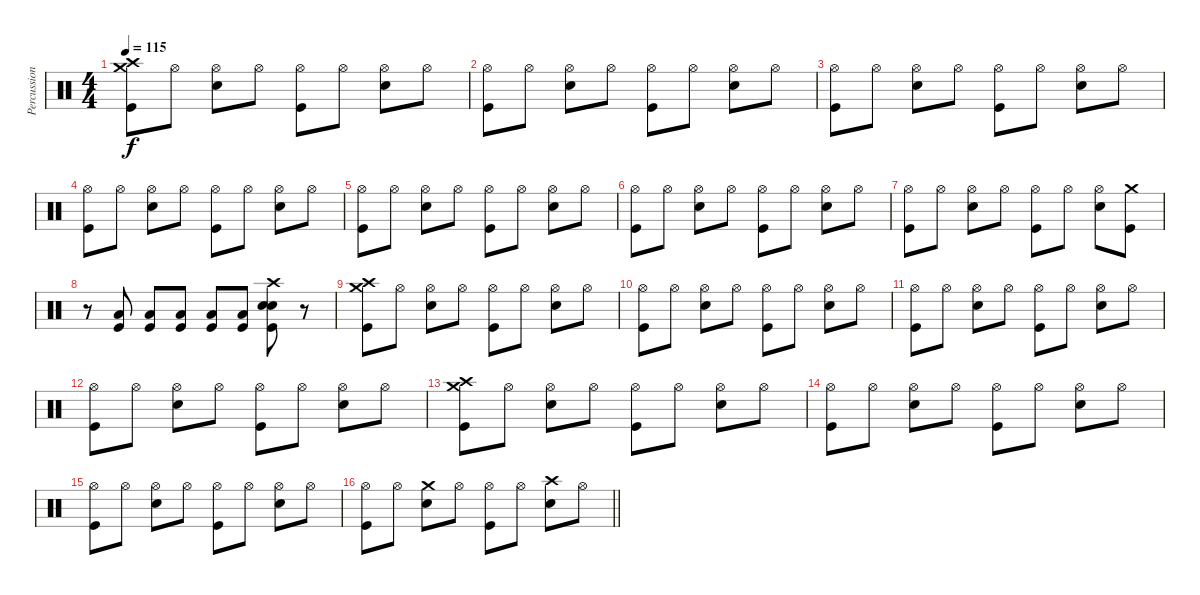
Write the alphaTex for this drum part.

\track ("Percussion" "Percussion") {instrument percussion}
\staff {score}
\articulation defaults
\ts (4 4)
\tempo 115
\clef neutral
\ks c
("Crash high (hit)" "Crash medium (hit)" "Kick (hit)").8{dy f} "Hi-Hat (open)".8 ("Hi-Hat (open)" "Electric Snare (hit)").8 "Hi-Hat (open)".8 ("Hi-Hat (open)" "Kick (hit)").8 "Hi-Hat (open)".8 ("Hi-Hat (open)" "Electric Snare (hit)").8 "Hi-Hat (open)".8 |
("Hi-Hat (open)" "Kick (hit)").8 "Hi-Hat (open)".8 ("Hi-Hat (open)" "Electric Snare (hit)").8 "Hi-Hat (open)".8 ("Hi-Hat (open)" "Kick (hit)").8 "Hi-Hat (open)".8 ("Hi-Hat (open)" "Electric Snare (hit)").8 "Hi-Hat (open)".8 |
("Hi-Hat (open)" "Kick (hit)").8 "Hi-Hat (open)".8 ("Hi-Hat (open)" "Electric Snare (hit)").8 "Hi-Hat (open)".8 ("Hi-Hat (open)" "Kick (hit)").8 "Hi-Hat (open)".8 ("Hi-Hat (open)" "Electric Snare (hit)").8 "Hi-Hat (open)".8 |
("Hi-Hat (open)" "Kick (hit)").8 "Hi-Hat (open)".8 ("Hi-Hat (open)" "Electric Snare (hit)").8 "Hi-Hat (open)".8 ("Hi-Hat (open)" "Kick (hit)").8 "Hi-Hat (open)".8 ("Hi-Hat (open)" "Electric Snare (hit)").8 "Hi-Hat (open)".8 |
("Hi-Hat (open)" "Kick (hit)").8 "Hi-Hat (open)".8 ("Hi-Hat (open)" "Electric Snare (hit)").8 "Hi-Hat (open)".8 ("Hi-Hat (open)" "Kick (hit)").8 "Hi-Hat (open)".8 ("Hi-Hat (open)" "Electric Snare (hit)").8 "Hi-Hat (open)".8 |
("Hi-Hat (open)" "Kick (hit)").8 "Hi-Hat (open)".8 ("Hi-Hat (open)" "Electric Snare (hit)").8 "Hi-Hat (open)".8 ("Hi-Hat (open)" "Kick (hit)").8 "Hi-Hat (open)".8 ("Hi-Hat (open)" "Electric Snare (hit)").8 "Hi-Hat (open)".8 |
("Hi-Hat (open)" "Kick (hit)").8 "Hi-Hat (open)".8 ("Hi-Hat (open)" "Electric Snare (hit)").8 "Hi-Hat (open)".8 ("Hi-Hat (open)" "Kick (hit)").8 "Hi-Hat (open)".8 ("Hi-Hat (open)" "Electric Snare (hit)").8 ("Crash medium (hit)" "Kick (hit)").8 |
r.8 ("Kick (hit)" "Low Tom (hit)").8 ("Kick (hit)" "Low Tom (hit)").8 ("Kick (hit)" "Low Tom (hit)").8 ("Kick (hit)" "Low Tom (hit)").8 ("Kick (hit)" "Low Tom (hit)").8 ("Crash high (hit)" "Kick (hit)" "Snare (hit) 2" "Electric Snare (hit)").8 r.8 |
("Crash high (hit)" "Crash medium (hit)" "Kick (hit)").8 "Hi-Hat (open)".8 ("Hi-Hat (open)" "Electric Snare (hit)").8 "Hi-Hat (open)".8 ("Hi-Hat (open)" "Kick (hit)").8 "Hi-Hat (open)".8 ("Hi-Hat (open)" "Electric Snare (hit)").8 "Hi-Hat (open)".8 |
("Hi-Hat (open)" "Kick (hit)").8 "Hi-Hat (open)".8 ("Hi-Hat (open)" "Electric Snare (hit)").8 "Hi-Hat (open)".8 ("Hi-Hat (open)" "Kick (hit)").8 "Hi-Hat (open)".8 ("Hi-Hat (open)" "Electric Snare (hit)").8 "Hi-Hat (open)".8 |
("Hi-Hat (open)" "Kick (hit)").8 "Hi-Hat (open)".8 ("Hi-Hat (open)" "Electric Snare (hit)").8 "Hi-Hat (open)".8 ("Hi-Hat (open)" "Kick (hit)").8 "Hi-Hat (open)".8 ("Hi-Hat (open)" "Electric Snare (hit)").8 "Hi-Hat (open)".8 |
("Hi-Hat (open)" "Kick (hit)").8 "Hi-Hat (open)".8 ("Hi-Hat (open)" "Electric Snare (hit)").8 "Hi-Hat (open)".8 ("Hi-Hat (open)" "Kick (hit)").8 "Hi-Hat (open)".8 ("Hi-Hat (open)" "Electric Snare (hit)").8 "Hi-Hat (open)".8 |
("Crash high (hit)" "Crash medium (hit)" "Kick (hit)").8 "Hi-Hat (open)".8 ("Hi-Hat (open)" "Electric Snare (hit)").8 "Hi-Hat (open)".8 ("Hi-Hat (open)" "Kick (hit)").8 "Hi-Hat (open)".8 ("Hi-Hat (open)" "Electric Snare (hit)").8 "Hi-Hat (open)".8 |
("Hi-Hat (open)" "Kick (hit)").8 "Hi-Hat (open)".8 ("Hi-Hat (open)" "Electric Snare (hit)").8 "Hi-Hat (open)".8 ("Hi-Hat (open)" "Kick (hit)").8 "Hi-Hat (open)".8 ("Hi-Hat (open)" "Electric Snare (hit)").8 "Hi-Hat (open)".8 |
("Hi-Hat (open)" "Kick (hit)").8 "Hi-Hat (open)".8 ("Hi-Hat (open)" "Electric Snare (hit)").8 "Hi-Hat (open)".8 ("Hi-Hat (open)" "Kick (hit)").8 "Hi-Hat (open)".8 ("Hi-Hat (open)" "Electric Snare (hit)").8 "Hi-Hat (open)".8 |
\barLineRight lightlight
("Hi-Hat (open)" "Kick (hit)").8 "Hi-Hat (open)".8 ("Crash medium (hit)" "Electric Snare (hit)").8 "Hi-Hat (open)".8 ("Hi-Hat (open)" "Kick (hit)").8 "Hi-Hat (open)".8 ("Crash high (hit)" "Electric Snare (hit)").8 "Hi-Hat (open)".8
